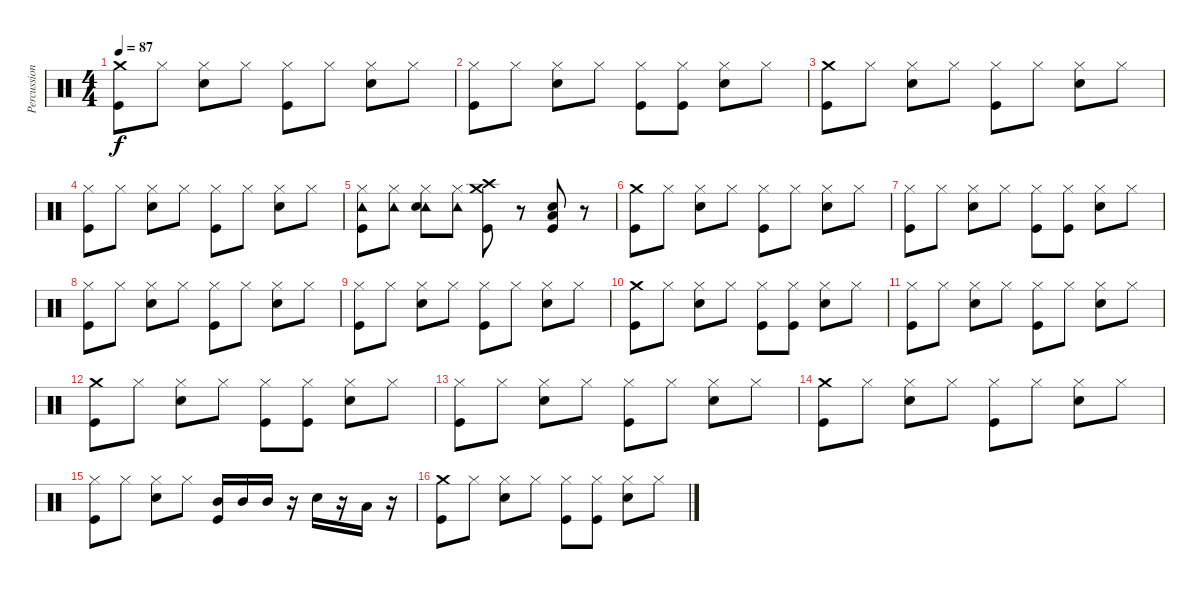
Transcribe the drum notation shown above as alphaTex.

\track ("Percussion" "Percussion") {instrument percussion}
\staff {score}
\articulation defaults
\ts (4 4)
\tempo 87
\clef neutral
\ks c
("Crash medium (hit)" "Kick (hit)").8{dy f} "Hi-Hat (closed)".8 ("Hi-Hat (closed)" "Electric Snare (hit)").8 "Hi-Hat (closed)".8 ("Hi-Hat (closed)" "Kick (hit)").8 "Hi-Hat (closed)".8 ("Hi-Hat (closed)" "Electric Snare (hit)").8 "Hi-Hat (closed)".8 |
("Hi-Hat (closed)" "Kick (hit)").8 "Hi-Hat (closed)".8 ("Hi-Hat (closed)" "Electric Snare (hit)").8 "Hi-Hat (closed)".8 ("Hi-Hat (closed)" "Kick (hit)").8 ("Hi-Hat (closed)" "Kick (hit)").8 ("Hi-Hat (closed)" "Electric Snare (hit)").8 "Hi-Hat (closed)".8 |
("Crash medium (hit)" "Kick (hit)").8 "Hi-Hat (closed)".8 ("Hi-Hat (closed)" "Electric Snare (hit)").8 "Hi-Hat (closed)".8 ("Hi-Hat (closed)" "Kick (hit)").8 "Hi-Hat (closed)".8 ("Hi-Hat (closed)" "Electric Snare (hit)").8 "Hi-Hat (closed)".8 |
("Hi-Hat (closed)" "Kick (hit)").8 "Hi-Hat (closed)".8 ("Hi-Hat (closed)" "Electric Snare (hit)").8 "Hi-Hat (closed)".8 ("Hi-Hat (closed)" "Kick (hit)").8 "Hi-Hat (closed)".8 ("Hi-Hat (closed)" "Electric Snare (hit)").8 "Hi-Hat (closed)".8 |
("Tambourine (hit)" "Hi-Hat (closed)" "Kick (hit)").8 ("Tambourine (hit)" "Hi-Hat (closed)").8 ("Tambourine (hit)" "Hi-Hat (closed)" "Electric Snare (hit)").8 ("Tambourine (hit)" "Hi-Hat (closed)").8 ("Crash medium (hit)" "Crash high (hit)" "Kick (hit)").8 r.8 ("Low Floor Tom (hit)" "Electric Snare (hit)" "Kick (hit)").8 r.8 |
("Crash medium (hit)" "Kick (hit)").8 "Hi-Hat (closed)".8 ("Hi-Hat (closed)" "Electric Snare (hit)").8 "Hi-Hat (closed)".8 ("Hi-Hat (closed)" "Kick (hit)").8 "Hi-Hat (closed)".8 ("Hi-Hat (closed)" "Electric Snare (hit)").8 "Hi-Hat (closed)".8 |
("Hi-Hat (closed)" "Kick (hit)").8 "Hi-Hat (closed)".8 ("Hi-Hat (closed)" "Electric Snare (hit)").8 "Hi-Hat (closed)".8 ("Hi-Hat (closed)" "Kick (hit)").8 ("Hi-Hat (closed)" "Kick (hit)").8 ("Hi-Hat (closed)" "Electric Snare (hit)").8 "Hi-Hat (closed)".8 |
("Hi-Hat (closed)" "Kick (hit)").8 "Hi-Hat (closed)".8 ("Hi-Hat (closed)" "Electric Snare (hit)").8 "Hi-Hat (closed)".8 ("Hi-Hat (closed)" "Kick (hit)").8 "Hi-Hat (closed)".8 ("Hi-Hat (closed)" "Electric Snare (hit)").8 "Hi-Hat (closed)".8 |
("Hi-Hat (closed)" "Kick (hit)").8 "Hi-Hat (closed)".8 ("Hi-Hat (closed)" "Electric Snare (hit)").8 "Hi-Hat (closed)".8 ("Hi-Hat (closed)" "Kick (hit)").8 "Hi-Hat (closed)".8 ("Hi-Hat (closed)" "Electric Snare (hit)").8 "Hi-Hat (closed)".8 |
("Crash medium (hit)" "Kick (hit)").8 "Hi-Hat (closed)".8 ("Hi-Hat (closed)" "Electric Snare (hit)").8 "Hi-Hat (closed)".8 ("Hi-Hat (closed)" "Kick (hit)").8 ("Hi-Hat (closed)" "Kick (hit)").8 ("Hi-Hat (closed)" "Electric Snare (hit)").8 "Hi-Hat (closed)".8 |
("Hi-Hat (closed)" "Kick (hit)").8 "Hi-Hat (closed)".8 ("Hi-Hat (closed)" "Electric Snare (hit)").8 "Hi-Hat (closed)".8 ("Hi-Hat (closed)" "Kick (hit)").8 "Hi-Hat (closed)".8 ("Hi-Hat (closed)" "Electric Snare (hit)").8 "Hi-Hat (closed)".8 |
("Crash medium (hit)" "Kick (hit)").8 "Hi-Hat (closed)".8 ("Hi-Hat (closed)" "Electric Snare (hit)").8 "Hi-Hat (closed)".8 ("Hi-Hat (closed)" "Kick (hit)").8 ("Hi-Hat (closed)" "Kick (hit)").8 ("Hi-Hat (closed)" "Electric Snare (hit)").8 "Hi-Hat (closed)".8 |
("Hi-Hat (closed)" "Kick (hit)").8 "Hi-Hat (closed)".8 ("Hi-Hat (closed)" "Electric Snare (hit)").8 "Hi-Hat (closed)".8 ("Hi-Hat (closed)" "Kick (hit)").8 "Hi-Hat (closed)".8 ("Hi-Hat (closed)" "Electric Snare (hit)").8 "Hi-Hat (closed)".8 |
("Crash medium (hit)" "Kick (hit)").8 "Hi-Hat (closed)".8 ("Hi-Hat (closed)" "Electric Snare (hit)").8 "Hi-Hat (closed)".8 ("Hi-Hat (closed)" "Kick (hit)").8 "Hi-Hat (closed)".8 ("Hi-Hat (closed)" "Electric Snare (hit)").8 "Hi-Hat (closed)".8 |
("Hi-Hat (closed)" "Kick (hit)").8 "Hi-Hat (closed)".8 ("Hi-Hat (closed)" "Electric Snare (hit)").8 "Hi-Hat (closed)".8 ("Mid Tom (hit)" "Kick (hit)").16 "Mid Tom (hit)".16 "Mid Tom (hit)".16 r.16 "Electric Snare (hit)".16 r.16 "Low Tom (hit)".16 r.16 |
("Crash medium (hit)" "Kick (hit)").8 "Hi-Hat (closed)".8 ("Hi-Hat (closed)" "Electric Snare (hit)").8 "Hi-Hat (closed)".8 ("Hi-Hat (closed)" "Kick (hit)").8 ("Hi-Hat (closed)" "Kick (hit)").8 ("Hi-Hat (closed)" "Electric Snare (hit)").8 "Hi-Hat (closed)".8
